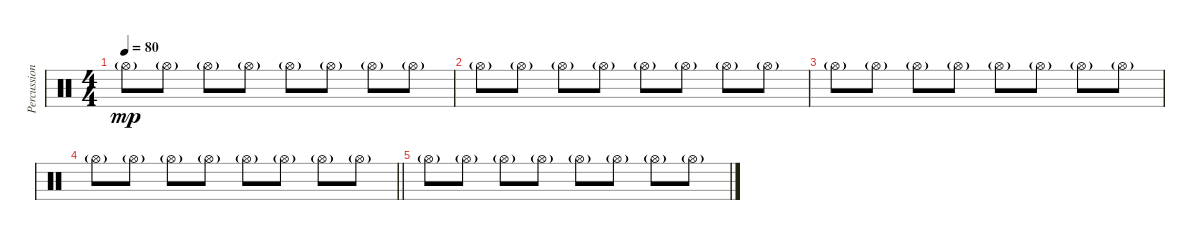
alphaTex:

\track ("Percussion" "Percussion") {instrument percussion}
\staff {score}
\articulation defaults
\ts (4 4)
\tempo 80
\clef neutral
\ks c "Hi-Hat (open)"{g}.8{dy mp} "Hi-Hat (open)"{g}.8 "Hi-Hat (open)"{g}.8 "Hi-Hat (open)"{g}.8 "Hi-Hat (open)"{g}.8 "Hi-Hat (open)"{g}.8 "Hi-Hat (open)"{g}.8 "Hi-Hat (open)"{g}.8
|
"Hi-Hat (open)"{g}.8 "Hi-Hat (open)"{g}.8 "Hi-Hat (open)"{g}.8 "Hi-Hat (open)"{g}.8 "Hi-Hat (open)"{g}.8 "Hi-Hat (open)"{g}.8 "Hi-Hat (open)"{g}.8 "Hi-Hat (open)"{g}.8 |
"Hi-Hat (open)"{g}.8 "Hi-Hat (open)"{g}.8 "Hi-Hat (open)"{g}.8 "Hi-Hat (open)"{g}.8 "Hi-Hat (open)"{g}.8 "Hi-Hat (open)"{g}.8 "Hi-Hat (open)"{g}.8 "Hi-Hat (open)"{g}.8 |
\barLineRight lightlight "Hi-Hat (open)"{g}.8 "Hi-Hat (open)"{g}.8 "Hi-Hat (open)"{g}.8 "Hi-Hat (open)"{g}.8 "Hi-Hat (open)"{g}.8 "Hi-Hat (open)"{g}.8 "Hi-Hat (open)"{g}.8 "Hi-Hat (open)"{g}.8
|
"Hi-Hat (open)"{g}.8 "Hi-Hat (open)"{g}.8 "Hi-Hat (open)"{g}.8 "Hi-Hat (open)"{g}.8 "Hi-Hat (open)"{g}.8 "Hi-Hat (open)"{g}.8 "Hi-Hat (open)"{g}.8 "Hi-Hat (open)"{g}.8
